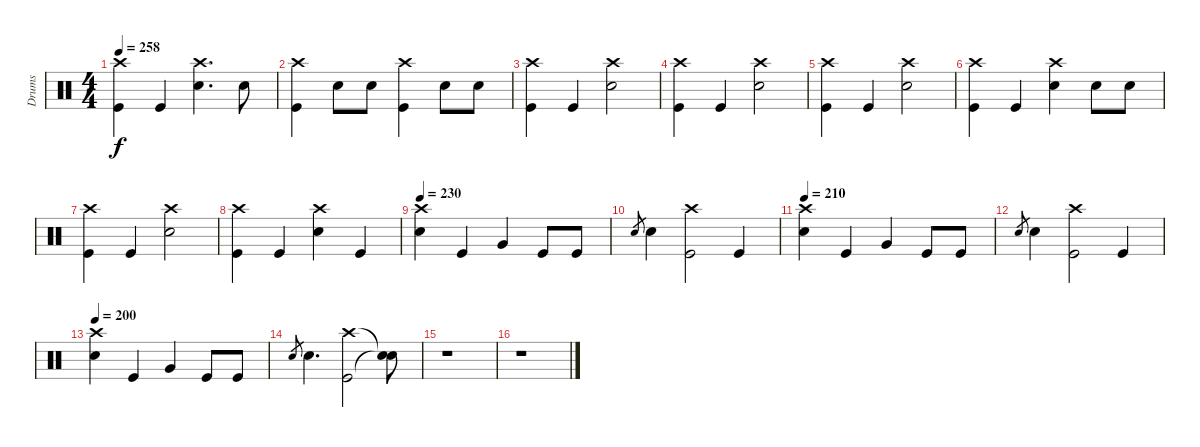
\track ("Drums" "Drums") {instrument percussion}
\staff {score}
\articulation defaults
\ts (4 4)
\tempo 258
\clef neutral
\ks c
("Crash high (hit)" "Kick (hit)").4{dy f} "Kick (hit)".4 ("Crash high (hit)" "Electric Snare (hit)").4{d} "Electric Snare (hit)".8 |
("Crash high (hit)" "Kick (hit)").4 "Electric Snare (hit)".8 "Electric Snare (hit)".8 ("Crash high (hit)" "Kick (hit)").4 "Electric Snare (hit)".8 "Electric Snare (hit)".8 |
("Crash high (hit)" "Kick (hit)").4 "Kick (hit)".4 ("Crash high (hit)" "Electric Snare (hit)").2 |
("Crash high (hit)" "Kick (hit)").4 "Kick (hit)".4 ("Crash high (hit)" "Electric Snare (hit)").2 |
("Crash high (hit)" "Kick (hit)").4 "Kick (hit)".4 ("Crash high (hit)" "Electric Snare (hit)").2 |
("Crash high (hit)" "Kick (hit)").4 "Kick (hit)".4 ("Crash high (hit)" "Electric Snare (hit)").4 "Electric Snare (hit)".8 "Electric Snare (hit)".8 |
("Crash high (hit)" "Kick (hit)").4 "Kick (hit)".4 ("Crash high (hit)" "Electric Snare (hit)").2 |
("Crash high (hit)" "Kick (hit)").4 "Kick (hit)".4 ("Crash high (hit)" "Electric Snare (hit)").4 "Kick (hit)".4 |
\tempo 230
("Crash high (hit)" "Electric Snare (hit)").4 "Kick (hit)".4 "Very Low Tom (hit)".4 "Kick (hit)".8 "Kick (hit)".8 |
"Electric Snare (hit)".8{gr} "Electric Snare (hit)".4 ("Crash high (hit)" "Kick (hit)").2 "Kick (hit)".4 |
\tempo 210
("Crash high (hit)" "Electric Snare (hit)").4 "Kick (hit)".4 "Very Low Tom (hit)".4 "Kick (hit)".8 "Kick (hit)".8 |
"Electric Snare (hit)".8{gr} "Electric Snare (hit)".4 ("Crash high (hit)" "Kick (hit)").2 "Kick (hit)".4 |
\tempo 200
("Crash high (hit)" "Electric Snare (hit)").4 "Kick (hit)".4 "Very Low Tom (hit)".4 "Kick (hit)".8 "Kick (hit)".8 |
"Electric Snare (hit)".8{gr} "Electric Snare (hit)".4{d} ("Crash high (hit)" "Kick (hit)").2 ("Snare (hit)"{t} "Snare (hit)"{t}).8 |
r.1 |
r.1
